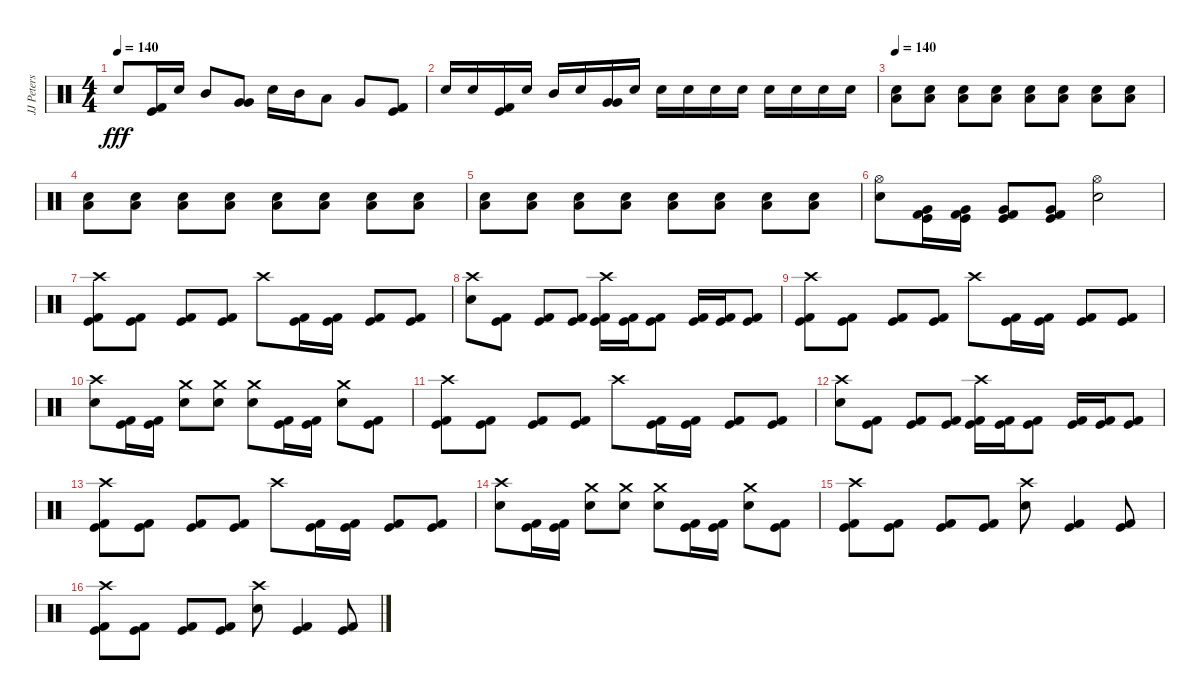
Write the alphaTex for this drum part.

\track ("JJ Peters" "JJ Peters") {instrument percussion}
\staff {score}
\articulation defaults
\ts (4 4)
\tempo 140
\clef neutral
\ks c "Electric Snare (hit)".8{dy fff}
("Kick (hit)" "Kick (hit) 2").16 "Electric Snare (hit)".16 "Mid Tom (hit)".8 ("Very Low Tom (hit)" "Very Low Tom (hit)").8 "Electric Snare (hit)".16 "Mid Tom (hit)".16 "Low Tom (hit)".8 "Very Low Tom (hit)".8 ("Kick (hit)" "Kick (hit) 2").8 |
"Electric Snare (hit)".16 "Electric Snare (hit)".16 ("Kick (hit)" "Kick (hit) 2").16 "Electric Snare (hit)".16 "Mid Tom (hit)".16 "Electric Snare (hit)".16 ("Very Low Tom (hit)" "Very Low Tom (hit)").16 "Electric Snare (hit)".16 "Electric Snare (hit)".16 "Electric Snare (hit)".16 "Electric Snare (hit)".16 "Electric Snare (hit)".16 "Electric Snare (hit)".16 "Electric Snare (hit)".16 "Electric Snare (hit)".16 "Electric Snare (hit)".16 |
\tempo 140
("Low Tom (hit)" "Electric Snare (hit)").8 ("Low Tom (hit)" "Electric Snare (hit)").8 ("Low Tom (hit)" "Electric Snare (hit)").8 ("Low Tom (hit)" "Electric Snare (hit)").8 ("Low Tom (hit)" "Electric Snare (hit)").8 ("Low Tom (hit)" "Electric Snare (hit)").8 ("Low Tom (hit)" "Electric Snare (hit)").8 ("Low Tom (hit)" "Electric Snare (hit)").8 |
("Low Tom (hit)" "Electric Snare (hit)").8 ("Low Tom (hit)" "Electric Snare (hit)").8 ("Low Tom (hit)" "Electric Snare (hit)").8 ("Low Tom (hit)" "Electric Snare (hit)").8 ("Low Tom (hit)" "Electric Snare (hit)").8 ("Low Tom (hit)" "Electric Snare (hit)").8 ("Low Tom (hit)" "Electric Snare (hit)").8 ("Low Tom (hit)" "Electric Snare (hit)").8 |
("Low Tom (hit)" "Electric Snare (hit)").8 ("Low Tom (hit)" "Electric Snare (hit)").8 ("Low Tom (hit)" "Electric Snare (hit)").8 ("Low Tom (hit)" "Electric Snare (hit)").8 ("Low Tom (hit)" "Electric Snare (hit)").8 ("Low Tom (hit)" "Electric Snare (hit)").8 ("Low Tom (hit)" "Electric Snare (hit)").8 ("Low Tom (hit)" "Electric Snare (hit)").8 |
("Hi-Hat (open)" "Electric Snare (hit)").8 ("Very Low Tom (hit)" "Kick (hit)" "Kick (hit) 2").16 ("Very Low Tom (hit)" "Kick (hit)" "Kick (hit) 2").16 ("Very Low Tom (hit)" "Kick (hit)" "Kick (hit) 2").8 ("Very Low Tom (hit)" "Kick (hit)" "Kick (hit) 2").8 ("Hi-Hat (open)" "Electric Snare (hit)").2 |
("Crash high (hit)" "Kick (hit)" "Kick (hit) 2").8 ("Kick (hit)" "Kick (hit) 2").8 ("Kick (hit)" "Kick (hit) 2").8 ("Kick (hit)" "Kick (hit) 2").8 "Crash high (hit)".8 ("Kick (hit)" "Kick (hit) 2").16 ("Kick (hit)" "Kick (hit) 2").16 ("Kick (hit)" "Kick (hit) 2").8 ("Kick (hit)" "Kick (hit) 2").8 |
("Crash high (hit)" "Electric Snare (hit)").8 ("Kick (hit)" "Kick (hit) 2").8 ("Kick (hit)" "Kick (hit) 2").8 ("Kick (hit)" "Kick (hit) 2").8 ("Crash high (hit)" "Kick (hit)" "Kick (hit) 2").16 ("Kick (hit)" "Kick (hit) 2").16 ("Kick (hit)" "Kick (hit) 2").8 ("Kick (hit)" "Kick (hit) 2").16 ("Kick (hit)" "Kick (hit) 2").16 ("Kick (hit)" "Kick (hit) 2").8 |
("Crash high (hit)" "Kick (hit)" "Kick (hit) 2").8 ("Kick (hit)" "Kick (hit) 2").8 ("Kick (hit)" "Kick (hit) 2").8 ("Kick (hit)" "Kick (hit) 2").8 "Crash high (hit)".8 ("Kick (hit)" "Kick (hit) 2").16 ("Kick (hit)" "Kick (hit) 2").16 ("Kick (hit)" "Kick (hit) 2").8 ("Kick (hit)" "Kick (hit) 2").8 |
("Crash high (hit)" "Electric Snare (hit)").8 ("Kick (hit)" "Kick (hit) 2").16 ("Kick (hit)" "Kick (hit) 2").16 ("Crash medium (hit)" "Electric Snare (hit)").8 ("Crash medium (hit)" "Electric Snare (hit)").8 ("Crash medium (hit)" "Electric Snare (hit)").8 ("Kick (hit)" "Kick (hit) 2").16 ("Kick (hit)" "Kick (hit) 2").16 ("Crash medium (hit)" "Electric Snare (hit)").8 ("Kick (hit)" "Kick (hit) 2").8 |
("Crash high (hit)" "Kick (hit)" "Kick (hit) 2").8 ("Kick (hit)" "Kick (hit) 2").8 ("Kick (hit)" "Kick (hit) 2").8 ("Kick (hit)" "Kick (hit) 2").8 "Crash high (hit)".8 ("Kick (hit)" "Kick (hit) 2").16 ("Kick (hit)" "Kick (hit) 2").16 ("Kick (hit)" "Kick (hit) 2").8 ("Kick (hit)" "Kick (hit) 2").8 |
("Crash high (hit)" "Electric Snare (hit)").8 ("Kick (hit)" "Kick (hit) 2").8 ("Kick (hit)" "Kick (hit) 2").8 ("Kick (hit)" "Kick (hit) 2").8 ("Crash high (hit)" "Kick (hit)" "Kick (hit) 2").16 ("Kick (hit)" "Kick (hit) 2").16 ("Kick (hit)" "Kick (hit) 2").8 ("Kick (hit)" "Kick (hit) 2").16 ("Kick (hit)" "Kick (hit) 2").16 ("Kick (hit)" "Kick (hit) 2").8 |
("Crash high (hit)" "Kick (hit)" "Kick (hit) 2").8 ("Kick (hit)" "Kick (hit) 2").8 ("Kick (hit)" "Kick (hit) 2").8 ("Kick (hit)" "Kick (hit) 2").8 "Crash high (hit)".8 ("Kick (hit)" "Kick (hit) 2").16 ("Kick (hit)" "Kick (hit) 2").16 ("Kick (hit)" "Kick (hit) 2").8 ("Kick (hit)" "Kick (hit) 2").8 |
("Crash high (hit)" "Electric Snare (hit)").8 ("Kick (hit)" "Kick (hit) 2").16 ("Kick (hit)" "Kick (hit) 2").16 ("Crash medium (hit)" "Electric Snare (hit)").8 ("Crash medium (hit)" "Electric Snare (hit)").8 ("Crash medium (hit)" "Electric Snare (hit)").8 ("Kick (hit)" "Kick (hit) 2").16 ("Kick (hit)" "Kick (hit) 2").16 ("Crash medium (hit)" "Electric Snare (hit)").8 ("Kick (hit)" "Kick (hit) 2").8 |
("Crash high (hit)" "Kick (hit)" "Kick (hit) 2").8 ("Kick (hit)" "Kick (hit) 2").8 ("Kick (hit)" "Kick (hit) 2").8 ("Kick (hit)" "Kick (hit) 2").8 ("Crash high (hit)" "Electric Snare (hit)").8 ("Kick (hit)" "Kick (hit) 2").4 ("Kick (hit)" "Kick (hit) 2").8 |
("Crash high (hit)" "Kick (hit)" "Kick (hit) 2").8 ("Kick (hit)" "Kick (hit) 2").8 ("Kick (hit)" "Kick (hit) 2").8 ("Kick (hit)" "Kick (hit) 2").8 ("Crash high (hit)" "Electric Snare (hit)").8 ("Kick (hit)" "Kick (hit) 2").4 ("Kick (hit)" "Kick (hit) 2").8
